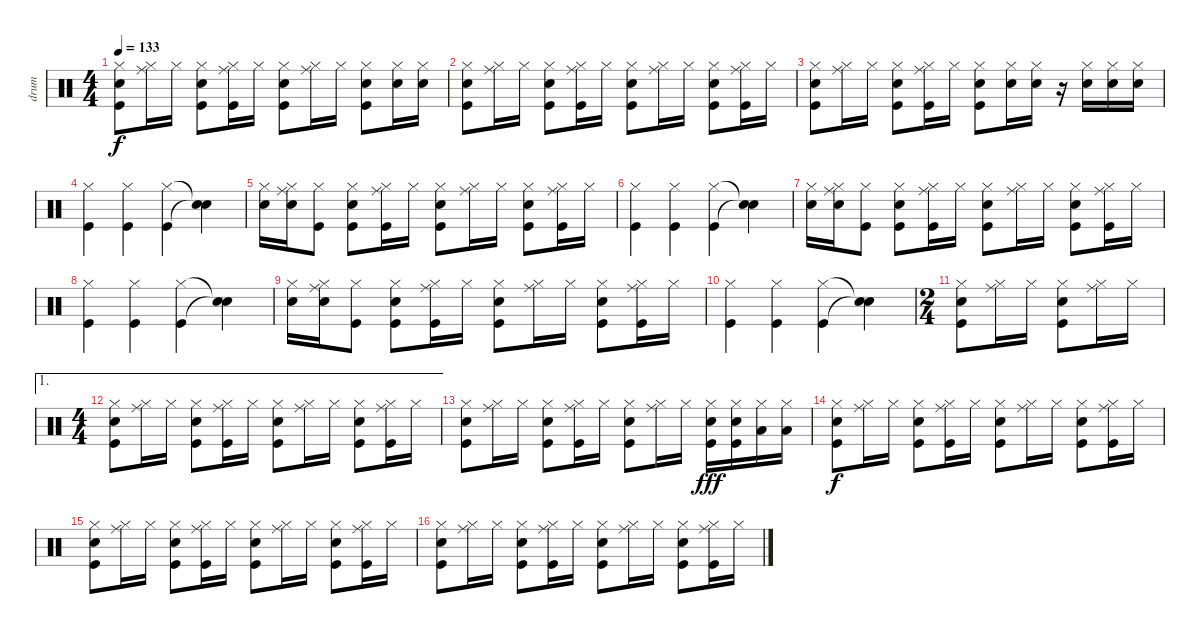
\track ("drum" "drum") {instrument percussion}
\staff {score}
\articulation defaults
\ts (4 4)
\tempo 133
\clef neutral
\ks c
("Hi-Hat (closed)" "Snare (hit) 2" "Kick (hit)").8{dy f} ("Hi-Hat (closed)" "Ride (middle)").16 "Hi-Hat (closed)".16 ("Hi-Hat (closed)" "Snare (hit) 2" "Kick (hit)").8 ("Hi-Hat (closed)" "Ride (middle)" "Kick (hit)").16 "Hi-Hat (closed)".16 ("Hi-Hat (closed)" "Snare (hit) 2" "Kick (hit)").8 ("Hi-Hat (closed)" "Ride (middle)").16 "Hi-Hat (closed)".16 ("Hi-Hat (closed)" "Snare (hit) 2" "Kick (hit)").8 ("Hi-Hat (closed)" "Snare (hit) 2").16 ("Hi-Hat (closed)" "Snare (hit) 2").16 |
("Hi-Hat (closed)" "Snare (hit) 2" "Kick (hit)").8 ("Hi-Hat (closed)" "Ride (middle)").16 "Hi-Hat (closed)".16 ("Hi-Hat (closed)" "Snare (hit) 2" "Kick (hit)").8 ("Hi-Hat (closed)" "Ride (middle)" "Kick (hit)").16 "Hi-Hat (closed)".16 ("Hi-Hat (closed)" "Snare (hit) 2" "Kick (hit)").8 ("Hi-Hat (closed)" "Ride (middle)").16 "Hi-Hat (closed)".16 ("Hi-Hat (closed)" "Snare (hit) 2" "Kick (hit)").8 ("Hi-Hat (closed)" "Ride (middle)" "Kick (hit)").16 "Hi-Hat (closed)".16 |
("Hi-Hat (closed)" "Snare (hit) 2" "Kick (hit)").8 ("Hi-Hat (closed)" "Ride (middle)").16 "Hi-Hat (closed)".16 ("Hi-Hat (closed)" "Snare (hit) 2" "Kick (hit)").8 ("Hi-Hat (closed)" "Ride (middle)" "Kick (hit)").16 "Hi-Hat (closed)".16 ("Hi-Hat (closed)" "Snare (hit) 2" "Kick (hit)").8 ("Hi-Hat (closed)" "Snare (hit) 2").16 ("Hi-Hat (closed)" "Snare (hit) 2").16 r.16 ("Hi-Hat (closed)" "Snare (hit) 2").16 ("Hi-Hat (closed)" "Snare (hit) 2").16 ("Hi-Hat (closed)" "Snare (hit) 2").16 |
("Hi-Hat (closed)" "Kick (hit)").4 ("Hi-Hat (closed)" "Kick (hit)").4 ("Hi-Hat (closed)" "Kick (hit)").4 ("Snare (hit)"{t} "Snare (hit)"{t}).4 |
("Hi-Hat (closed)" "Snare (hit) 2").16 ("Hi-Hat (closed)" "Snare (hit) 2" "Ride (middle)").16 ("Hi-Hat (closed)" "Kick (hit)").8 ("Hi-Hat (closed)" "Snare (hit) 2" "Kick (hit)").8 ("Hi-Hat (closed)" "Ride (middle)" "Kick (hit)").16 "Hi-Hat (closed)".16 ("Hi-Hat (closed)" "Snare (hit) 2" "Kick (hit)").8 ("Hi-Hat (closed)" "Ride (middle)").16 "Hi-Hat (closed)".16 ("Hi-Hat (closed)" "Snare (hit) 2" "Kick (hit)").8 ("Hi-Hat (closed)" "Ride (middle)" "Kick (hit)").16 "Hi-Hat (closed)".16 |
("Hi-Hat (closed)" "Kick (hit)").4 ("Hi-Hat (closed)" "Kick (hit)").4 ("Hi-Hat (closed)" "Kick (hit)").4 ("Snare (hit)"{t} "Snare (hit)"{t}).4 |
("Hi-Hat (closed)" "Snare (hit) 2").16 ("Hi-Hat (closed)" "Snare (hit) 2" "Ride (middle)").16 ("Hi-Hat (closed)" "Kick (hit)").8 ("Hi-Hat (closed)" "Snare (hit) 2" "Kick (hit)").8 ("Hi-Hat (closed)" "Ride (middle)" "Kick (hit)").16 "Hi-Hat (closed)".16 ("Hi-Hat (closed)" "Snare (hit) 2" "Kick (hit)").8 ("Hi-Hat (closed)" "Ride (middle)").16 "Hi-Hat (closed)".16 ("Hi-Hat (closed)" "Snare (hit) 2" "Kick (hit)").8 ("Hi-Hat (closed)" "Ride (middle)" "Kick (hit)").16 "Hi-Hat (closed)".16 |
("Hi-Hat (closed)" "Kick (hit)").4 ("Hi-Hat (closed)" "Kick (hit)").4 ("Hi-Hat (closed)" "Kick (hit)").4 ("Snare (hit)"{t} "Snare (hit)"{t}).4 |
("Hi-Hat (closed)" "Snare (hit) 2").16 ("Hi-Hat (closed)" "Snare (hit) 2" "Ride (middle)").16 ("Hi-Hat (closed)" "Kick (hit)").8 ("Hi-Hat (closed)" "Snare (hit) 2" "Kick (hit)").8 ("Hi-Hat (closed)" "Ride (middle)" "Kick (hit)").16 "Hi-Hat (closed)".16 ("Hi-Hat (closed)" "Snare (hit) 2" "Kick (hit)").8 ("Hi-Hat (closed)" "Ride (middle)").16 "Hi-Hat (closed)".16 ("Hi-Hat (closed)" "Snare (hit) 2" "Kick (hit)").8 ("Hi-Hat (closed)" "Ride (middle)" "Kick (hit)").16 "Hi-Hat (closed)".16 |
("Hi-Hat (closed)" "Kick (hit)").4 ("Hi-Hat (closed)" "Kick (hit)").4 ("Hi-Hat (closed)" "Kick (hit)").4 ("Snare (hit)"{t} "Snare (hit)"{t}).4 |
\ts (2 4)
("Hi-Hat (closed)" "Snare (hit) 2" "Kick (hit)").8 ("Hi-Hat (closed)" "Ride (middle)").16 "Hi-Hat (closed)".16 ("Hi-Hat (closed)" "Snare (hit) 2" "Kick (hit)").8 ("Hi-Hat (closed)" "Ride (middle)").16 "Hi-Hat (closed)".16 |
\ae 1
\ts (4 4)
("Hi-Hat (closed)" "Snare (hit) 2" "Kick (hit)").8 ("Hi-Hat (closed)" "Ride (middle)").16 "Hi-Hat (closed)".16 ("Hi-Hat (closed)" "Snare (hit) 2" "Kick (hit)").8 ("Hi-Hat (closed)" "Ride (middle)" "Kick (hit)").16 "Hi-Hat (closed)".16 ("Hi-Hat (closed)" "Snare (hit) 2" "Kick (hit)").8 ("Hi-Hat (closed)" "Ride (middle)").16 "Hi-Hat (closed)".16 ("Hi-Hat (closed)" "Snare (hit) 2" "Kick (hit)").8 ("Hi-Hat (closed)" "Ride (middle)" "Kick (hit)").16 "Hi-Hat (closed)".16 |
("Hi-Hat (closed)" "Snare (hit) 2" "Kick (hit)").8 ("Hi-Hat (closed)" "Ride (middle)").16 "Hi-Hat (closed)".16 ("Hi-Hat (closed)" "Snare (hit) 2" "Kick (hit)").8 ("Hi-Hat (closed)" "Ride (middle)" "Kick (hit)").16 "Hi-Hat (closed)".16 ("Hi-Hat (closed)" "Snare (hit) 2" "Kick (hit)").8 ("Hi-Hat (closed)" "Ride (middle)").16 "Hi-Hat (closed)".16 ("Hi-Hat (closed)" "Snare (hit) 2" "Kick (hit)").16{dy fff} ("Hi-Hat (closed)" "Snare (hit) 2" "Kick (hit)").16 ("Hi-Hat (closed)" "Low Floor Tom (hit)").16 ("Hi-Hat (closed)" "Low Floor Tom (hit)").16 |
("Hi-Hat (closed)" "Snare (hit) 2" "Kick (hit)").8{dy f} ("Hi-Hat (closed)" "Ride (middle)").16 "Hi-Hat (closed)".16 ("Hi-Hat (closed)" "Snare (hit) 2" "Kick (hit)").8 ("Hi-Hat (closed)" "Ride (middle)" "Kick (hit)").16 "Hi-Hat (closed)".16 ("Hi-Hat (closed)" "Snare (hit) 2" "Kick (hit)").8 ("Hi-Hat (closed)" "Ride (middle)").16 "Hi-Hat (closed)".16 ("Hi-Hat (closed)" "Snare (hit) 2" "Kick (hit)").8 ("Hi-Hat (closed)" "Ride (middle)" "Kick (hit)").16 "Hi-Hat (closed)".16 |
("Hi-Hat (closed)" "Snare (hit) 2" "Kick (hit)").8 ("Hi-Hat (closed)" "Ride (middle)").16 "Hi-Hat (closed)".16 ("Hi-Hat (closed)" "Snare (hit) 2" "Kick (hit)").8 ("Hi-Hat (closed)" "Ride (middle)" "Kick (hit)").16 "Hi-Hat (closed)".16 ("Hi-Hat (closed)" "Snare (hit) 2" "Kick (hit)").8 ("Hi-Hat (closed)" "Ride (middle)").16 "Hi-Hat (closed)".16 ("Hi-Hat (closed)" "Snare (hit) 2" "Kick (hit)").8 ("Hi-Hat (closed)" "Ride (middle)" "Kick (hit)").16 "Hi-Hat (closed)".16 |
("Hi-Hat (closed)" "Snare (hit) 2" "Kick (hit)").8 ("Hi-Hat (closed)" "Ride (middle)").16 "Hi-Hat (closed)".16 ("Hi-Hat (closed)" "Snare (hit) 2" "Kick (hit)").8 ("Hi-Hat (closed)" "Ride (middle)" "Kick (hit)").16 "Hi-Hat (closed)".16 ("Hi-Hat (closed)" "Snare (hit) 2" "Kick (hit)").8 ("Hi-Hat (closed)" "Ride (middle)").16 "Hi-Hat (closed)".16 ("Hi-Hat (closed)" "Snare (hit) 2" "Kick (hit)").8 ("Hi-Hat (closed)" "Ride (middle)" "Kick (hit)").16 "Hi-Hat (closed)".16
